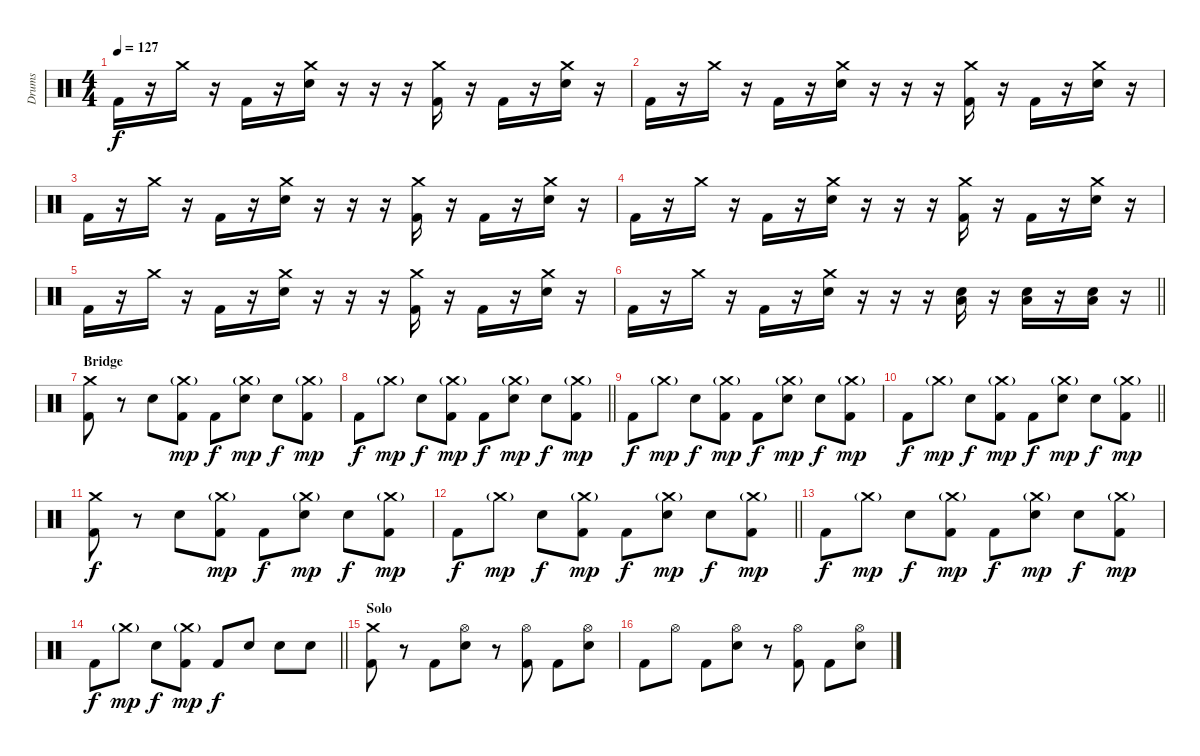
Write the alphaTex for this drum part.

\track ("Drums" "Drums") {instrument percussion}
\staff {score}
\articulation defaults
\ts (4 4)
\tempo 127
\clef neutral
\ks c "Kick (hit) 2".16{dy f}
r.16 "Crash medium (hit)".16 r.16 "Kick (hit) 2".16 r.16 ("Crash medium (hit)" "Electric Snare (hit)").16 r.16 r.16 r.16 ("Crash medium (hit)" "Kick (hit) 2").16 r.16 "Kick (hit) 2".16 r.16 ("Crash medium (hit)" "Electric Snare (hit)").16 r.16 |
"Kick (hit) 2".16 r.16 "Crash medium (hit)".16 r.16 "Kick (hit) 2".16 r.16 ("Crash medium (hit)" "Electric Snare (hit)").16 r.16 r.16 r.16 ("Crash medium (hit)" "Kick (hit) 2").16 r.16 "Kick (hit) 2".16 r.16 ("Crash medium (hit)" "Electric Snare (hit)").16 r.16 |
"Kick (hit) 2".16 r.16 "Crash medium (hit)".16 r.16 "Kick (hit) 2".16 r.16 ("Crash medium (hit)" "Electric Snare (hit)").16 r.16 r.16 r.16 ("Crash medium (hit)" "Kick (hit) 2").16 r.16 "Kick (hit) 2".16 r.16 ("Crash medium (hit)" "Electric Snare (hit)").16 r.16 |
"Kick (hit) 2".16 r.16 "Crash medium (hit)".16 r.16 "Kick (hit) 2".16 r.16 ("Crash medium (hit)" "Electric Snare (hit)").16 r.16 r.16 r.16 ("Crash medium (hit)" "Kick (hit) 2").16 r.16 "Kick (hit) 2".16 r.16 ("Crash medium (hit)" "Electric Snare (hit)").16 r.16 |
"Kick (hit) 2".16 r.16 "Crash medium (hit)".16 r.16 "Kick (hit) 2".16 r.16 ("Crash medium (hit)" "Electric Snare (hit)").16 r.16 r.16 r.16 ("Crash medium (hit)" "Kick (hit) 2").16 r.16 "Kick (hit) 2".16 r.16 ("Crash medium (hit)" "Electric Snare (hit)").16 r.16 |
\barLineRight lightlight "Kick (hit) 2".16
r.16 "Crash medium (hit)".16 r.16 "Kick (hit) 2".16 r.16 ("Crash medium (hit)" "Electric Snare (hit)").16 r.16 r.16 r.16 ("Low Floor Tom (hit)" "Electric Snare (hit)").16 r.16 ("Low Floor Tom (hit)" "Electric Snare (hit)").16 r.16 ("Low Floor Tom (hit)" "Electric Snare (hit)").16 r.16 |
\section ("" "Bridge")
("Crash medium (hit)" "Kick (hit) 2").8 r.8 "Electric Snare (hit)".8 ("Crash medium (hit)"{g} "Kick (hit) 2").8{dy mp} "Kick (hit) 2".8{dy f} ("Crash medium (hit)"{g} "Electric Snare (hit)").8{dy mp} "Electric Snare (hit)".8{dy f} ("Crash medium (hit)"{g} "Kick (hit) 2").8{dy mp} |
\barLineRight lightlight "Kick (hit) 2".8{dy f} "Crash medium (hit)"{g}.8{dy mp} "Electric Snare (hit)".8{dy f}
("Crash medium (hit)"{g} "Kick (hit) 2").8{dy mp} "Kick (hit) 2".8{dy f} ("Crash medium (hit)"{g} "Electric Snare (hit)").8{dy mp} "Electric Snare (hit)".8{dy f} ("Crash medium (hit)"{g} "Kick (hit) 2").8{dy mp} |
"Kick (hit) 2".8{dy f} "Crash medium (hit)"{g}.8{dy mp} "Electric Snare (hit)".8{dy f} ("Crash medium (hit)"{g} "Kick (hit) 2").8{dy mp} "Kick (hit) 2".8{dy f} ("Crash medium (hit)"{g} "Electric Snare (hit)").8{dy mp} "Electric Snare (hit)".8{dy f} ("Crash medium (hit)"{g} "Kick (hit) 2").8{dy mp} |
\barLineRight lightlight "Kick (hit) 2".8{dy f} "Crash medium (hit)"{g}.8{dy mp} "Electric Snare (hit)".8{dy f}
("Crash medium (hit)"{g} "Kick (hit) 2").8{dy mp} "Kick (hit) 2".8{dy f} ("Crash medium (hit)"{g} "Electric Snare (hit)").8{dy mp} "Electric Snare (hit)".8{dy f} ("Crash medium (hit)"{g} "Kick (hit) 2").8{dy mp} |
("Crash medium (hit)" "Kick (hit) 2").8{dy f} r.8 "Electric Snare (hit)".8 ("Crash medium (hit)"{g} "Kick (hit) 2").8{dy mp} "Kick (hit) 2".8{dy f} ("Crash medium (hit)"{g} "Electric Snare (hit)").8{dy mp} "Electric Snare (hit)".8{dy f} ("Crash medium (hit)"{g} "Kick (hit) 2").8{dy mp} |
\barLineRight lightlight "Kick (hit) 2".8{dy f} "Crash medium (hit)"{g}.8{dy mp} "Electric Snare (hit)".8{dy f}
("Crash medium (hit)"{g} "Kick (hit) 2").8{dy mp} "Kick (hit) 2".8{dy f} ("Crash medium (hit)"{g} "Electric Snare (hit)").8{dy mp} "Electric Snare (hit)".8{dy f} ("Crash medium (hit)"{g} "Kick (hit) 2").8{dy mp} |
"Kick (hit) 2".8{dy f} "Crash medium (hit)"{g}.8{dy mp} "Electric Snare (hit)".8{dy f} ("Crash medium (hit)"{g} "Kick (hit) 2").8{dy mp} "Kick (hit) 2".8{dy f} ("Crash medium (hit)"{g} "Electric Snare (hit)").8{dy mp} "Electric Snare (hit)".8{dy f} ("Crash medium (hit)"{g} "Kick (hit) 2").8{dy mp} |
\barLineRight lightlight "Kick (hit) 2".8{dy f} "Crash medium (hit)"{g}.8{dy mp} "Electric Snare (hit)".8{dy f}
("Crash medium (hit)"{g} "Kick (hit) 2").8{dy mp} "Kick (hit) 2".8{dy f} "Electric Snare (hit)".8 "Electric Snare (hit)".8 "Electric Snare (hit)".8 |
\section ("" "Solo")
("Crash medium (hit)" "Kick (hit) 2").8 r.8 "Kick (hit) 2".8 ("Hi-Hat (open)" "Electric Snare (hit)").8 r.8 ("Hi-Hat (open)" "Kick (hit) 2").8 "Kick (hit) 2".8 ("Hi-Hat (open)" "Electric Snare (hit)").8 |
"Kick (hit) 2".8 "Hi-Hat (open)".8 "Kick (hit) 2".8 ("Hi-Hat (open)" "Electric Snare (hit)").8 r.8 ("Hi-Hat (open)" "Kick (hit) 2").8 "Kick (hit) 2".8 ("Hi-Hat (open)" "Electric Snare (hit)").8
